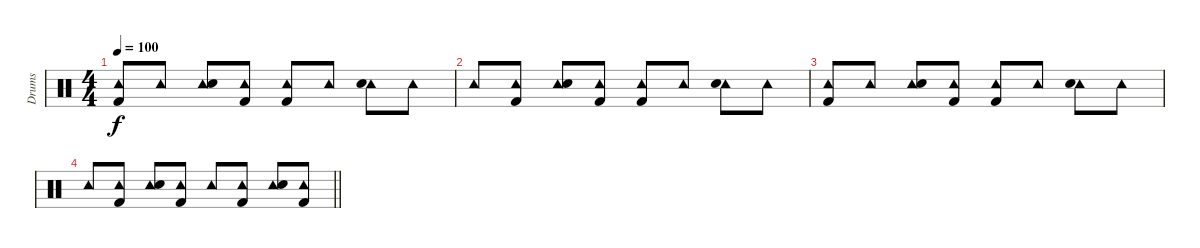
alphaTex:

\track ("Drums" "Drums") {instrument percussion}
\staff {score}
\articulation defaults
\ts (4 4)
\tempo 100
\clef neutral
\ks c
("Tambourine (hit)" "Kick (hit) 2").8{dy f} "Tambourine (hit)".8 ("Tambourine (hit)" "Snare (hit) 2").8 ("Tambourine (hit)" "Kick (hit) 2").8 ("Tambourine (hit)" "Kick (hit) 2").8 "Tambourine (hit)".8 ("Tambourine (hit)" "Snare (hit) 2").8 "Tambourine (hit)".8 |
"Tambourine (hit)".8 ("Tambourine (hit)" "Kick (hit) 2").8 ("Tambourine (hit)" "Snare (hit) 2").8 ("Tambourine (hit)" "Kick (hit) 2").8 ("Tambourine (hit)" "Kick (hit) 2").8 "Tambourine (hit)".8 ("Tambourine (hit)" "Snare (hit) 2").8 "Tambourine (hit)".8 |
("Tambourine (hit)" "Kick (hit) 2").8 "Tambourine (hit)".8 ("Tambourine (hit)" "Snare (hit) 2").8 ("Tambourine (hit)" "Kick (hit) 2").8 ("Tambourine (hit)" "Kick (hit) 2").8 "Tambourine (hit)".8 ("Tambourine (hit)" "Snare (hit) 2").8 "Tambourine (hit)".8 |
\barLineRight lightlight "Tambourine (hit)".8
("Tambourine (hit)" "Kick (hit) 2").8 ("Tambourine (hit)" "Snare (hit) 2").8 ("Tambourine (hit)" "Kick (hit) 2").8 "Tambourine (hit)".8 ("Tambourine (hit)" "Kick (hit) 2").8 ("Tambourine (hit)" "Snare (hit) 2").8 ("Tambourine (hit)" "Kick (hit) 2").8
